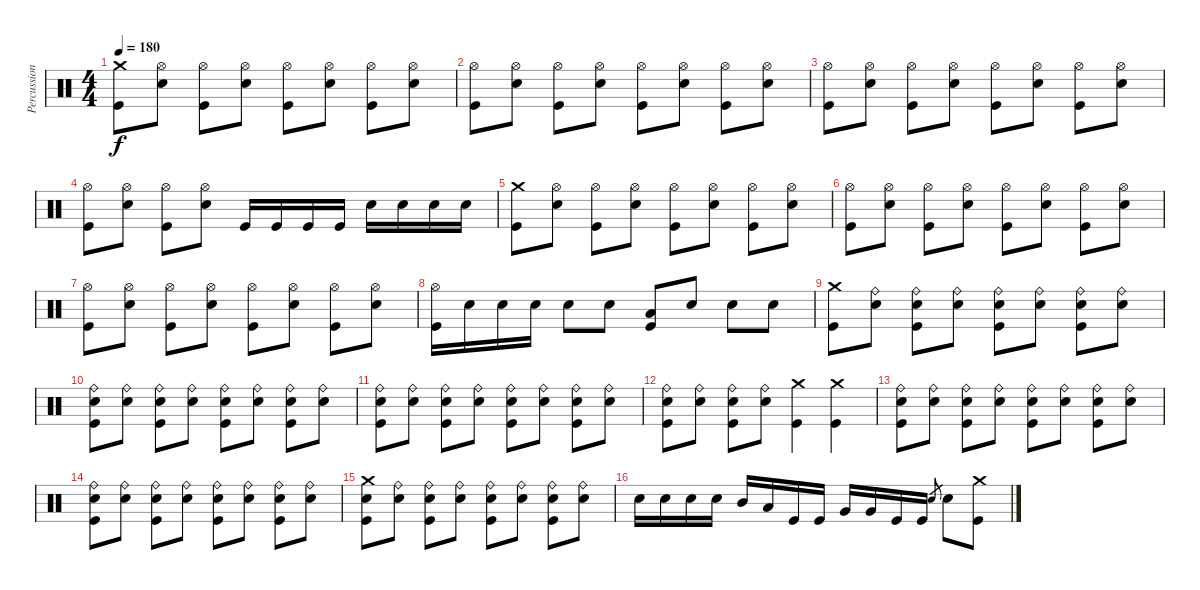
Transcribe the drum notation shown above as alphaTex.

\track ("Percussions" "Percussion") {instrument percussion}
\staff {score}
\articulation defaults
\ts (4 4)
\tempo 180
\clef neutral
\ks c
("Kick (hit)" "Crash medium (hit)").8{dy f} ("Electric Snare (hit)" "Hi-Hat (open)").8 ("Kick (hit)" "Hi-Hat (open)").8 ("Electric Snare (hit)" "Hi-Hat (open)").8 ("Kick (hit)" "Hi-Hat (open)").8 ("Electric Snare (hit)" "Hi-Hat (open)").8 ("Kick (hit)" "Hi-Hat (open)").8 ("Electric Snare (hit)" "Hi-Hat (open)").8 |
("Kick (hit)" "Hi-Hat (open)").8 ("Electric Snare (hit)" "Hi-Hat (open)").8 ("Kick (hit)" "Hi-Hat (open)").8 ("Electric Snare (hit)" "Hi-Hat (open)").8 ("Kick (hit)" "Hi-Hat (open)").8 ("Electric Snare (hit)" "Hi-Hat (open)").8 ("Kick (hit)" "Hi-Hat (open)").8 ("Electric Snare (hit)" "Hi-Hat (open)").8 |
("Kick (hit)" "Hi-Hat (open)").8 ("Electric Snare (hit)" "Hi-Hat (open)").8 ("Kick (hit)" "Hi-Hat (open)").8 ("Electric Snare (hit)" "Hi-Hat (open)").8 ("Kick (hit)" "Hi-Hat (open)").8 ("Electric Snare (hit)" "Hi-Hat (open)").8 ("Kick (hit)" "Hi-Hat (open)").8 ("Electric Snare (hit)" "Hi-Hat (open)").8 |
("Kick (hit)" "Hi-Hat (open)").8 ("Electric Snare (hit)" "Hi-Hat (open)").8 ("Kick (hit)" "Hi-Hat (open)").8 ("Electric Snare (hit)" "Hi-Hat (open)").8 "Kick (hit)".16 "Kick (hit)".16 "Kick (hit)".16 "Kick (hit)".16 "Electric Snare (hit)".16 "Electric Snare (hit)".16 "Electric Snare (hit)".16 "Electric Snare (hit)".16 |
("Kick (hit)" "Crash medium (hit)").8 ("Electric Snare (hit)" "Hi-Hat (open)").8 ("Kick (hit)" "Hi-Hat (open)").8 ("Electric Snare (hit)" "Hi-Hat (open)").8 ("Kick (hit)" "Hi-Hat (open)").8 ("Electric Snare (hit)" "Hi-Hat (open)").8 ("Kick (hit)" "Hi-Hat (open)").8 ("Electric Snare (hit)" "Hi-Hat (open)").8 |
("Kick (hit)" "Hi-Hat (open)").8 ("Electric Snare (hit)" "Hi-Hat (open)").8 ("Kick (hit)" "Hi-Hat (open)").8 ("Electric Snare (hit)" "Hi-Hat (open)").8 ("Kick (hit)" "Hi-Hat (open)").8 ("Electric Snare (hit)" "Hi-Hat (open)").8 ("Kick (hit)" "Hi-Hat (open)").8 ("Electric Snare (hit)" "Hi-Hat (open)").8 |
("Kick (hit)" "Hi-Hat (open)").8 ("Electric Snare (hit)" "Hi-Hat (open)").8 ("Kick (hit)" "Hi-Hat (open)").8 ("Electric Snare (hit)" "Hi-Hat (open)").8 ("Kick (hit)" "Hi-Hat (open)").8 ("Electric Snare (hit)" "Hi-Hat (open)").8 ("Kick (hit)" "Hi-Hat (open)").8 ("Electric Snare (hit)" "Hi-Hat (open)").8 |
("Kick (hit)" "Hi-Hat (open)").16 "Electric Snare (hit)".16 "Electric Snare (hit)".16 "Electric Snare (hit)".16 "Electric Snare (hit)".8 "Electric Snare (hit)".8 ("Kick (hit)" "Low Floor Tom (hit)").8 "Electric Snare (hit)".8 "Electric Snare (hit)".8 "Electric Snare (hit)".8 |
("Kick (hit)" "Crash medium (hit)").8 ("Electric Snare (hit)" "Ride (bell)").8 ("Kick (hit)" "Electric Snare (hit)" "Ride (bell)").8 ("Electric Snare (hit)" "Ride (bell)").8 ("Kick (hit)" "Electric Snare (hit)" "Ride (bell)").8 ("Electric Snare (hit)" "Ride (bell)").8 ("Kick (hit)" "Electric Snare (hit)" "Ride (bell)").8 ("Electric Snare (hit)" "Ride (bell)").8 |
("Kick (hit)" "Electric Snare (hit)" "Ride (bell)").8 ("Electric Snare (hit)" "Ride (bell)").8 ("Kick (hit)" "Electric Snare (hit)" "Ride (bell)").8 ("Electric Snare (hit)" "Ride (bell)").8 ("Kick (hit)" "Electric Snare (hit)" "Ride (bell)").8 ("Electric Snare (hit)" "Ride (bell)").8 ("Kick (hit)" "Electric Snare (hit)" "Ride (bell)").8 ("Electric Snare (hit)" "Ride (bell)").8 |
("Kick (hit)" "Electric Snare (hit)" "Ride (bell)").8 ("Electric Snare (hit)" "Ride (bell)").8 ("Kick (hit)" "Electric Snare (hit)" "Ride (bell)").8 ("Electric Snare (hit)" "Ride (bell)").8 ("Kick (hit)" "Electric Snare (hit)" "Ride (bell)").8 ("Electric Snare (hit)" "Ride (bell)").8 ("Kick (hit)" "Electric Snare (hit)" "Ride (bell)").8 ("Electric Snare (hit)" "Ride (bell)").8 |
("Kick (hit)" "Electric Snare (hit)" "Ride (bell)").8 ("Electric Snare (hit)" "Ride (bell)").8 ("Kick (hit)" "Electric Snare (hit)" "Ride (bell)").8 ("Electric Snare (hit)" "Ride (bell)").8 ("Kick (hit)" "Crash medium (hit)").4 ("Kick (hit)" "Crash medium (hit)").4 |
("Kick (hit)" "Electric Snare (hit)" "Ride (bell)").8 ("Electric Snare (hit)" "Ride (bell)").8 ("Kick (hit)" "Electric Snare (hit)" "Ride (bell)").8 ("Electric Snare (hit)" "Ride (bell)").8 ("Kick (hit)" "Electric Snare (hit)" "Ride (bell)").8 ("Electric Snare (hit)" "Ride (bell)").8 ("Kick (hit)" "Electric Snare (hit)" "Ride (bell)").8 ("Electric Snare (hit)" "Ride (bell)").8 |
("Kick (hit)" "Electric Snare (hit)" "Ride (bell)").8 ("Electric Snare (hit)" "Ride (bell)").8 ("Kick (hit)" "Electric Snare (hit)" "Ride (bell)").8 ("Electric Snare (hit)" "Ride (bell)").8 ("Kick (hit)" "Electric Snare (hit)" "Ride (bell)").8 ("Electric Snare (hit)" "Ride (bell)").8 ("Kick (hit)" "Electric Snare (hit)" "Ride (bell)").8 ("Electric Snare (hit)" "Ride (bell)").8 |
("Kick (hit)" "Electric Snare (hit)" "Crash medium (hit)").8 ("Electric Snare (hit)" "Ride (bell)").8 ("Kick (hit)" "Electric Snare (hit)" "Ride (bell)").8 ("Electric Snare (hit)" "Ride (bell)").8 ("Kick (hit)" "Electric Snare (hit)" "Ride (bell)").8 ("Electric Snare (hit)" "Ride (bell)").8 ("Kick (hit)" "Electric Snare (hit)" "Ride (bell)").8 ("Electric Snare (hit)" "Ride (bell)").8 |
"Electric Snare (hit)".16 "Electric Snare (hit)".16 "Electric Snare (hit)".16 "Electric Snare (hit)".16 "Mid Tom (hit)".16 "Low Tom (hit)".16 "Kick (hit)".16 "Kick (hit)".16 "Very Low Tom (hit)".16 "Very Low Tom (hit)".16 "Kick (hit)".16 "Kick (hit)".16 "Electric Snare (hit)".8{gr} "Electric Snare (hit)".8 ("Kick (hit)" "Crash medium (hit)").8
